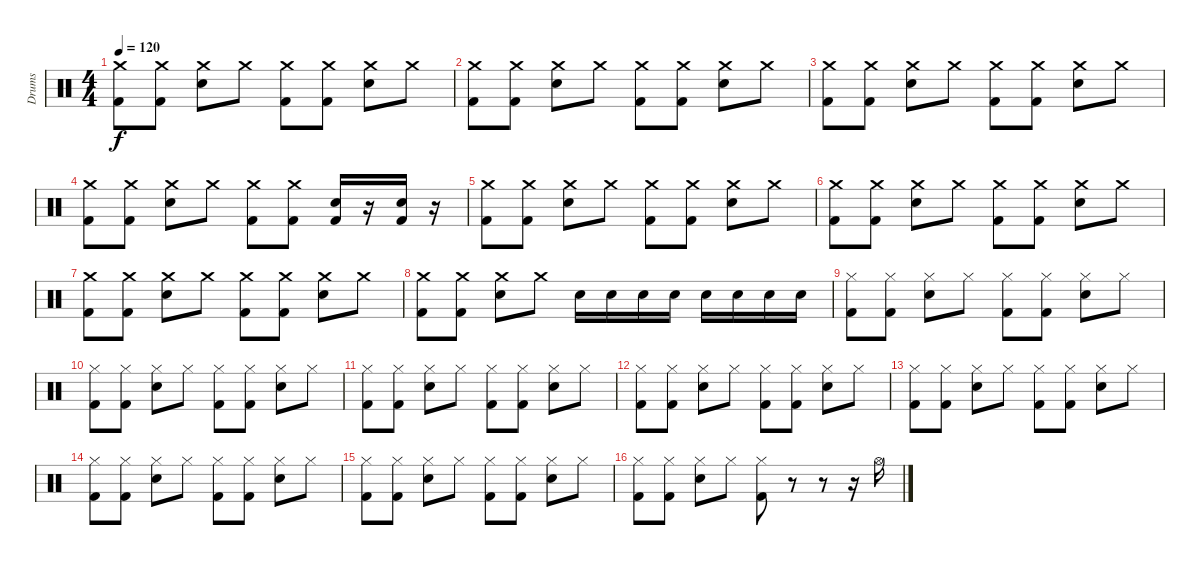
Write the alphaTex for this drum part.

\track ("Drums" "Drums") {instrument percussion}
\staff {score}
\articulation defaults
\ts (4 4)
\tempo 120
\clef neutral
\ks c
("Crash medium (hit)" "Kick (hit) 2").8{dy f} ("Crash medium (hit)" "Kick (hit) 2").8 ("Crash medium (hit)" "Electric Snare (hit)").8 "Crash medium (hit)".8 ("Crash medium (hit)" "Kick (hit) 2").8 ("Crash medium (hit)" "Kick (hit) 2").8 ("Crash medium (hit)" "Electric Snare (hit)").8 "Crash medium (hit)".8 |
("Crash medium (hit)" "Kick (hit) 2").8 ("Crash medium (hit)" "Kick (hit) 2").8 ("Crash medium (hit)" "Electric Snare (hit)").8 "Crash medium (hit)".8 ("Crash medium (hit)" "Kick (hit) 2").8 ("Crash medium (hit)" "Kick (hit) 2").8 ("Crash medium (hit)" "Electric Snare (hit)").8 "Crash medium (hit)".8 |
("Crash medium (hit)" "Kick (hit) 2").8 ("Crash medium (hit)" "Kick (hit) 2").8 ("Crash medium (hit)" "Electric Snare (hit)").8 "Crash medium (hit)".8 ("Crash medium (hit)" "Kick (hit) 2").8 ("Crash medium (hit)" "Kick (hit) 2").8 ("Crash medium (hit)" "Electric Snare (hit)").8 "Crash medium (hit)".8 |
("Crash medium (hit)" "Kick (hit) 2").8 ("Crash medium (hit)" "Kick (hit) 2").8 ("Crash medium (hit)" "Electric Snare (hit)").8 "Crash medium (hit)".8 ("Crash medium (hit)" "Kick (hit) 2").8 ("Crash medium (hit)" "Kick (hit) 2").8 ("Kick (hit) 2" "Electric Snare (hit)").16 r.16 ("Kick (hit) 2" "Electric Snare (hit)").16 r.16 |
("Crash medium (hit)" "Kick (hit) 2").8 ("Crash medium (hit)" "Kick (hit) 2").8 ("Crash medium (hit)" "Electric Snare (hit)").8 "Crash medium (hit)".8 ("Crash medium (hit)" "Kick (hit) 2").8 ("Crash medium (hit)" "Kick (hit) 2").8 ("Crash medium (hit)" "Electric Snare (hit)").8 "Crash medium (hit)".8 |
("Crash medium (hit)" "Kick (hit) 2").8 ("Crash medium (hit)" "Kick (hit) 2").8 ("Crash medium (hit)" "Electric Snare (hit)").8 "Crash medium (hit)".8 ("Crash medium (hit)" "Kick (hit) 2").8 ("Crash medium (hit)" "Kick (hit) 2").8 ("Crash medium (hit)" "Electric Snare (hit)").8 "Crash medium (hit)".8 |
("Crash medium (hit)" "Kick (hit) 2").8 ("Crash medium (hit)" "Kick (hit) 2").8 ("Crash medium (hit)" "Electric Snare (hit)").8 "Crash medium (hit)".8 ("Crash medium (hit)" "Kick (hit) 2").8 ("Crash medium (hit)" "Kick (hit) 2").8 ("Crash medium (hit)" "Electric Snare (hit)").8 "Crash medium (hit)".8 |
("Crash medium (hit)" "Kick (hit) 2").8 ("Crash medium (hit)" "Kick (hit) 2").8 ("Crash medium (hit)" "Electric Snare (hit)").8 "Crash medium (hit)".8 "Electric Snare (hit)".16 "Electric Snare (hit)".16 "Electric Snare (hit)".16 "Electric Snare (hit)".16 "Electric Snare (hit)".16 "Electric Snare (hit)".16 "Electric Snare (hit)".16 "Electric Snare (hit)".16 |
("Hi-Hat (closed)" "Kick (hit) 2").8 ("Hi-Hat (closed)" "Kick (hit) 2").8 ("Hi-Hat (closed)" "Electric Snare (hit)").8 "Hi-Hat (closed)".8 ("Hi-Hat (closed)" "Kick (hit) 2").8 ("Hi-Hat (closed)" "Kick (hit) 2").8 ("Hi-Hat (closed)" "Electric Snare (hit)").8 "Hi-Hat (closed)".8 |
("Hi-Hat (closed)" "Kick (hit) 2").8 ("Hi-Hat (closed)" "Kick (hit) 2").8 ("Hi-Hat (closed)" "Electric Snare (hit)").8 "Hi-Hat (closed)".8 ("Hi-Hat (closed)" "Kick (hit) 2").8 ("Hi-Hat (closed)" "Kick (hit) 2").8 ("Hi-Hat (closed)" "Electric Snare (hit)").8 "Hi-Hat (closed)".8 |
("Hi-Hat (closed)" "Kick (hit) 2").8 ("Hi-Hat (closed)" "Kick (hit) 2").8 ("Hi-Hat (closed)" "Electric Snare (hit)").8 "Hi-Hat (closed)".8 ("Hi-Hat (closed)" "Kick (hit) 2").8 ("Hi-Hat (closed)" "Kick (hit) 2").8 ("Hi-Hat (closed)" "Electric Snare (hit)").8 "Hi-Hat (closed)".8 |
("Hi-Hat (closed)" "Kick (hit) 2").8 ("Hi-Hat (closed)" "Kick (hit) 2").8 ("Hi-Hat (closed)" "Electric Snare (hit)").8 "Hi-Hat (closed)".8 ("Hi-Hat (closed)" "Kick (hit) 2").8 ("Hi-Hat (closed)" "Kick (hit) 2").8 ("Hi-Hat (closed)" "Electric Snare (hit)").8 "Hi-Hat (closed)".8 |
("Hi-Hat (closed)" "Kick (hit) 2").8 ("Hi-Hat (closed)" "Kick (hit) 2").8 ("Hi-Hat (closed)" "Electric Snare (hit)").8 "Hi-Hat (closed)".8 ("Hi-Hat (closed)" "Kick (hit) 2").8 ("Hi-Hat (closed)" "Kick (hit) 2").8 ("Hi-Hat (closed)" "Electric Snare (hit)").8 "Hi-Hat (closed)".8 |
("Hi-Hat (closed)" "Kick (hit) 2").8 ("Hi-Hat (closed)" "Kick (hit) 2").8 ("Hi-Hat (closed)" "Electric Snare (hit)").8 "Hi-Hat (closed)".8 ("Hi-Hat (closed)" "Kick (hit) 2").8 ("Hi-Hat (closed)" "Kick (hit) 2").8 ("Hi-Hat (closed)" "Electric Snare (hit)").8 "Hi-Hat (closed)".8 |
("Hi-Hat (closed)" "Kick (hit) 2").8 ("Hi-Hat (closed)" "Kick (hit) 2").8 ("Hi-Hat (closed)" "Electric Snare (hit)").8 "Hi-Hat (closed)".8 ("Hi-Hat (closed)" "Kick (hit) 2").8 ("Hi-Hat (closed)" "Kick (hit) 2").8 ("Hi-Hat (closed)" "Electric Snare (hit)").8 "Hi-Hat (closed)".8 |
("Hi-Hat (closed)" "Kick (hit) 2").8 ("Hi-Hat (closed)" "Kick (hit) 2").8 ("Hi-Hat (closed)" "Electric Snare (hit)").8 "Hi-Hat (closed)".8 ("Hi-Hat (closed)" "Kick (hit) 2").8 r.8 r.8 r.16 "Hi-Hat (open)".16
